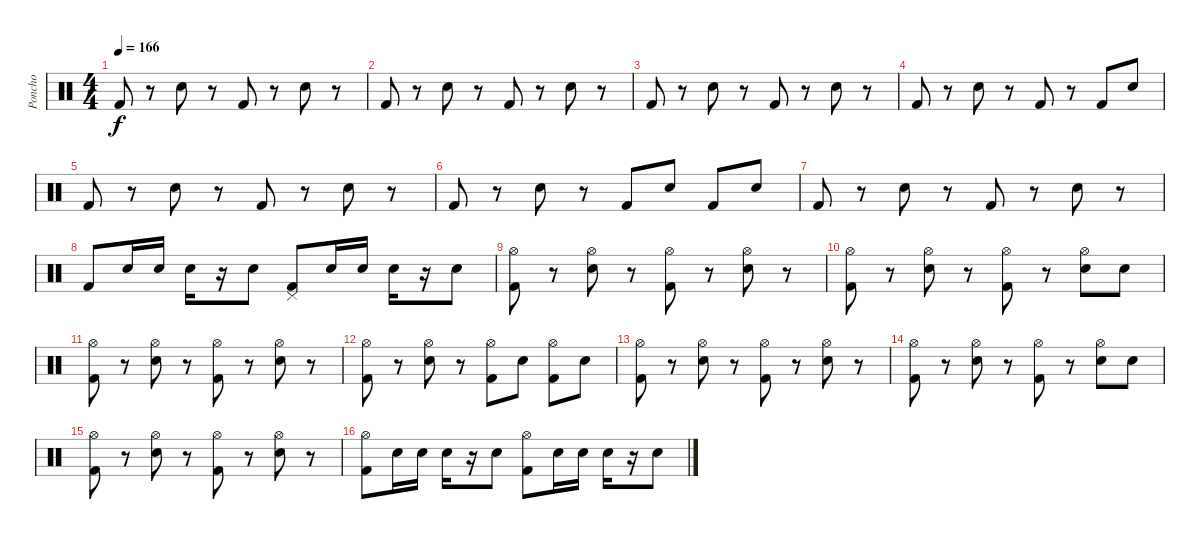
\track ("Poncho" "Poncho") {instrument percussion}
\staff {score}
\articulation defaults
\ts (4 4)
\tempo 166
\clef neutral
\ks c "Kick (hit) 2".8{dy f}
r.8 "Electric Snare (hit)".8 r.8 "Kick (hit) 2".8 r.8 "Electric Snare (hit)".8 r.8 |
"Kick (hit) 2".8 r.8 "Electric Snare (hit)".8 r.8 "Kick (hit) 2".8 r.8 "Electric Snare (hit)".8 r.8 |
"Kick (hit) 2".8 r.8 "Electric Snare (hit)".8 r.8 "Kick (hit) 2".8 r.8 "Electric Snare (hit)".8 r.8 |
"Kick (hit) 2".8 r.8 "Electric Snare (hit)".8 r.8 "Kick (hit) 2".8 r.8 "Kick (hit) 2".8 "Snare (hit)".8 |
"Kick (hit) 2".8 r.8 "Electric Snare (hit)".8 r.8 "Kick (hit) 2".8 r.8 "Electric Snare (hit)".8 r.8 |
"Kick (hit) 2".8 r.8 "Electric Snare (hit)".8 r.8 "Kick (hit) 2".8 "Electric Snare (hit)".8 "Kick (hit) 2".8 "Electric Snare (hit)".8 |
"Kick (hit) 2".8 r.8 "Electric Snare (hit)".8 r.8 "Kick (hit) 2".8 r.8 "Electric Snare (hit)".8 r.8 |
"Kick (hit) 2".8 "Electric Snare (hit)".16 "Electric Snare (hit)".16 "Electric Snare (hit)".16 r.16 "Electric Snare (hit)".8 ("Pedal Hi-Hat (hit)" "Kick (hit) 2").8 "Electric Snare (hit)".16 "Electric Snare (hit)".16 "Electric Snare (hit)".16 r.16 "Electric Snare (hit)".8 |
("Hi-Hat (open)" "Kick (hit) 2").8 r.8 ("Hi-Hat (open)" "Electric Snare (hit)").8 r.8 ("Hi-Hat (open)" "Kick (hit) 2").8 r.8 ("Hi-Hat (open)" "Electric Snare (hit)").8 r.8 |
("Hi-Hat (open)" "Kick (hit) 2").8 r.8 ("Hi-Hat (open)" "Electric Snare (hit)").8 r.8 ("Hi-Hat (open)" "Kick (hit) 2").8 r.8 ("Hi-Hat (open)" "Electric Snare (hit)").8 "Snare (hit)".8 |
("Hi-Hat (open)" "Kick (hit) 2").8 r.8 ("Hi-Hat (open)" "Electric Snare (hit)").8 r.8 ("Hi-Hat (open)" "Kick (hit) 2").8 r.8 ("Hi-Hat (open)" "Electric Snare (hit)").8 r.8 |
("Hi-Hat (open)" "Kick (hit) 2").8 r.8 ("Hi-Hat (open)" "Electric Snare (hit)").8 r.8 ("Hi-Hat (open)" "Kick (hit) 2").8 "Electric Snare (hit)".8 ("Hi-Hat (open)" "Kick (hit) 2").8 "Electric Snare (hit)".8 |
("Hi-Hat (open)" "Kick (hit) 2").8 r.8 ("Hi-Hat (open)" "Electric Snare (hit)").8 r.8 ("Hi-Hat (open)" "Kick (hit) 2").8 r.8 ("Hi-Hat (open)" "Electric Snare (hit)").8 r.8 |
("Hi-Hat (open)" "Kick (hit) 2").8 r.8 ("Hi-Hat (open)" "Electric Snare (hit)").8 r.8 ("Hi-Hat (open)" "Kick (hit) 2").8 r.8 ("Hi-Hat (open)" "Electric Snare (hit)").8 "Snare (hit)".8 |
("Hi-Hat (open)" "Kick (hit) 2").8 r.8 ("Hi-Hat (open)" "Electric Snare (hit)").8 r.8 ("Hi-Hat (open)" "Kick (hit) 2").8 r.8 ("Hi-Hat (open)" "Electric Snare (hit)").8 r.8 |
("Hi-Hat (open)" "Kick (hit) 2").8 "Electric Snare (hit)".16 "Electric Snare (hit)".16 "Electric Snare (hit)".16 r.16 "Electric Snare (hit)".8 ("Hi-Hat (open)" "Kick (hit) 2").8 "Electric Snare (hit)".16 "Electric Snare (hit)".16 "Electric Snare (hit)".16 r.16 "Electric Snare (hit)".8
